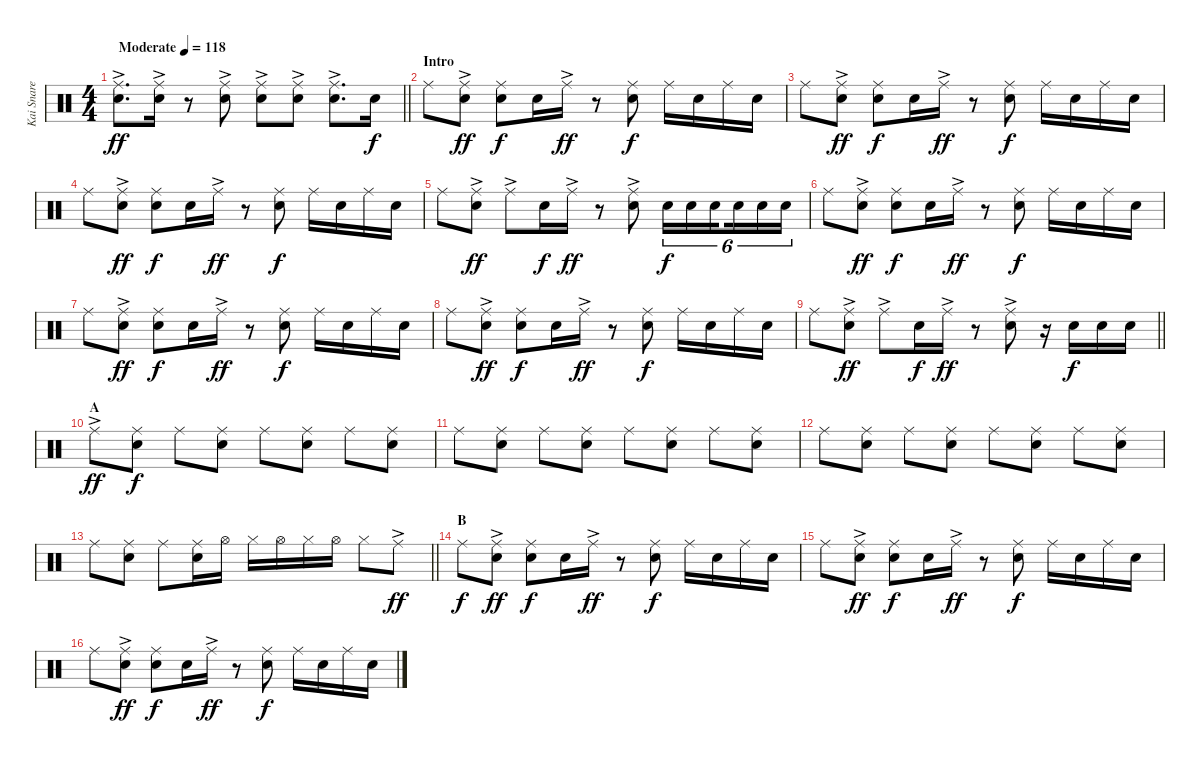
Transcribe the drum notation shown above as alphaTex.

\track ("Kai Snare" "Kai Snare") {instrument percussion}
\staff {score}
\articulation defaults
\ts (4 4)
\tempo (118 "Moderate")
\clef neutral
\barLineRight lightlight
\ks c
("Ride (middle)"{ac} "Snare (hit) 2").8{d dy ff} ("Ride (middle)"{ac} "Snare (hit) 2").16 r.8 ("Ride (middle)"{ac} "Snare (hit) 2").8 ("Ride (middle)"{ac} "Snare (hit) 2").8 ("Ride (middle)"{ac} "Snare (hit) 2").8 ("Ride (middle)"{ac} "Snare (hit) 2").8{d} "Snare (hit) 2".16{dy f} |
\section ("" "Intro")
"Ride (middle)".8 ("Ride (middle)"{ac} "Snare (hit) 2").8{dy ff} ("Ride (middle)" "Snare (hit) 2").8{dy f} "Snare (hit) 2".16 "Ride (middle)"{ac}.16{dy ff} r.8 ("Ride (middle)" "Snare (hit) 2").8{dy f} "Ride (middle)".16 "Snare (hit) 2".16 "Ride (middle)".16 "Snare (hit) 2".16 |
"Ride (middle)".8 ("Ride (middle)"{ac} "Snare (hit) 2").8{dy ff} ("Ride (middle)" "Snare (hit) 2").8{dy f} "Snare (hit) 2".16 "Ride (middle)"{ac}.16{dy ff} r.8 ("Ride (middle)" "Snare (hit) 2").8{dy f} "Ride (middle)".16 "Snare (hit) 2".16 "Ride (middle)".16 "Snare (hit) 2".16 |
"Ride (middle)".8 ("Ride (middle)"{ac} "Snare (hit) 2").8{dy ff} ("Ride (middle)" "Snare (hit) 2").8{dy f} "Snare (hit) 2".16 "Ride (middle)"{ac}.16{dy ff} r.8 ("Ride (middle)" "Snare (hit) 2").8{dy f} "Ride (middle)".16 "Snare (hit) 2".16 "Ride (middle)".16 "Snare (hit) 2".16 |
"Ride (middle)".8 ("Ride (middle)"{ac} "Snare (hit) 2").8{dy ff} "Ride (middle)"{ac}.8 "Snare (hit) 2".16{dy f} "Ride (middle)"{ac}.16{dy ff} r.8 ("Ride (middle)"{ac} "Snare (hit) 2").8 "Snare (hit) 2".16{tu (6 4) dy f} "Snare (hit) 2".16{tu (6 4)} "Snare (hit) 2".16{tu (6 4) beam splitsecondary} "Snare (hit) 2".16{tu (6 4)} "Snare (hit) 2".16{tu (6 4)} "Snare (hit) 2".16{tu (6 4)} |
"Ride (middle)".8 ("Ride (middle)"{ac} "Snare (hit) 2").8{dy ff} ("Ride (middle)" "Snare (hit) 2").8{dy f} "Snare (hit) 2".16 "Ride (middle)"{ac}.16{dy ff} r.8 ("Ride (middle)" "Snare (hit) 2").8{dy f} "Ride (middle)".16 "Snare (hit) 2".16 "Ride (middle)".16 "Snare (hit) 2".16 |
"Ride (middle)".8 ("Ride (middle)"{ac} "Snare (hit) 2").8{dy ff} ("Ride (middle)" "Snare (hit) 2").8{dy f} "Snare (hit) 2".16 "Ride (middle)"{ac}.16{dy ff} r.8 ("Ride (middle)" "Snare (hit) 2").8{dy f} "Ride (middle)".16 "Snare (hit) 2".16 "Ride (middle)".16 "Snare (hit) 2".16 |
"Ride (middle)".8 ("Ride (middle)"{ac} "Snare (hit) 2").8{dy ff} ("Ride (middle)" "Snare (hit) 2").8{dy f} "Snare (hit) 2".16 "Ride (middle)"{ac}.16{dy ff} r.8 ("Ride (middle)" "Snare (hit) 2").8{dy f} "Ride (middle)".16 "Snare (hit) 2".16 "Ride (middle)".16 "Snare (hit) 2".16 |
\barLineRight lightlight "Ride (middle)".8
("Ride (middle)"{ac} "Snare (hit) 2").8{dy ff} "Ride (middle)"{ac}.8 "Snare (hit) 2".16{dy f} "Ride (middle)"{ac}.16{dy ff} r.8 ("Ride (middle)"{ac} "Snare (hit) 2").8 r.16 "Snare (hit) 2".16{dy f} "Snare (hit) 2".16 "Snare (hit) 2".16 |
\section ("" "A")
"Ride (middle)"{ac}.8{dy ff} ("Ride (middle)" "Snare (hit) 2").8{dy f} "Ride (middle)".8 ("Ride (middle)" "Snare (hit) 2").8 "Ride (middle)".8 ("Ride (middle)" "Snare (hit) 2").8 "Ride (middle)".8 ("Ride (middle)" "Snare (hit) 2").8 |
"Ride (middle)".8 ("Ride (middle)" "Snare (hit) 2").8 "Ride (middle)".8 ("Ride (middle)" "Snare (hit) 2").8 "Ride (middle)".8 ("Ride (middle)" "Snare (hit) 2").8 "Ride (middle)".8 ("Ride (middle)" "Snare (hit) 2").8 |
"Ride (middle)".8 ("Ride (middle)" "Snare (hit) 2").8 "Ride (middle)".8 ("Ride (middle)" "Snare (hit) 2").8 "Ride (middle)".8 ("Ride (middle)" "Snare (hit) 2").8 "Ride (middle)".8 ("Ride (middle)" "Snare (hit) 2").8 |
\barLineRight lightlight "Ride (middle)".8
("Ride (middle)" "Snare (hit) 2").8 "Ride (middle)".8 ("Ride (middle)" "Snare (hit) 2").16 "Hi-Hat (open)".16 "Hi-Hat (closed)".16 "Hi-Hat (open)".16 "Hi-Hat (closed)".16 "Hi-Hat (open)".16 "Hi-Hat (closed)".8 "Ride (middle)"{ac}.8{dy ff} |
\section ("" "B")
"Ride (middle)".8{dy f} ("Ride (middle)"{ac} "Snare (hit) 2").8{dy ff} ("Ride (middle)" "Snare (hit) 2").8{dy f} "Snare (hit) 2".16 "Ride (middle)"{ac}.16{dy ff} r.8 ("Ride (middle)" "Snare (hit) 2").8{dy f} "Ride (middle)".16 "Snare (hit) 2".16 "Ride (middle)".16 "Snare (hit) 2".16 |
"Ride (middle)".8 ("Ride (middle)"{ac} "Snare (hit) 2").8{dy ff} ("Ride (middle)" "Snare (hit) 2").8{dy f} "Snare (hit) 2".16 "Ride (middle)"{ac}.16{dy ff} r.8 ("Ride (middle)" "Snare (hit) 2").8{dy f} "Ride (middle)".16 "Snare (hit) 2".16 "Ride (middle)".16 "Snare (hit) 2".16 |
"Ride (middle)".8 ("Ride (middle)"{ac} "Snare (hit) 2").8{dy ff} ("Ride (middle)" "Snare (hit) 2").8{dy f} "Snare (hit) 2".16 "Ride (middle)"{ac}.16{dy ff} r.8 ("Ride (middle)" "Snare (hit) 2").8{dy f} "Ride (middle)".16 "Snare (hit) 2".16 "Ride (middle)".16 "Snare (hit) 2".16
